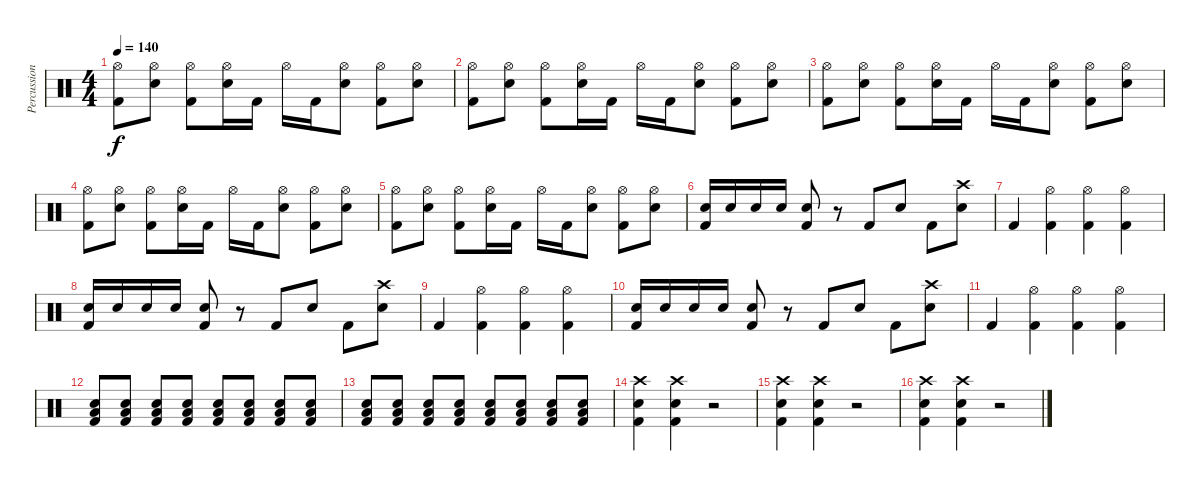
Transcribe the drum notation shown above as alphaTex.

\track ("Percussion" "Percussion") {instrument percussion}
\staff {score}
\articulation defaults
\ts (4 4)
\tempo 140
\clef neutral
\ks c
("Hi-Hat (open)" "Kick (hit) 2").8{dy f} ("Hi-Hat (open)" "Electric Snare (hit)").8 ("Hi-Hat (open)" "Kick (hit) 2").8 ("Hi-Hat (open)" "Electric Snare (hit)").16 "Kick (hit) 2".16 "Hi-Hat (open)".16 "Kick (hit) 2".16 ("Hi-Hat (open)" "Electric Snare (hit)").8 ("Hi-Hat (open)" "Kick (hit) 2").8 ("Hi-Hat (open)" "Electric Snare (hit)").8 |
("Hi-Hat (open)" "Kick (hit) 2").8 ("Hi-Hat (open)" "Electric Snare (hit)").8 ("Hi-Hat (open)" "Kick (hit) 2").8 ("Hi-Hat (open)" "Electric Snare (hit)").16 "Kick (hit) 2".16 "Hi-Hat (open)".16 "Kick (hit) 2".16 ("Hi-Hat (open)" "Electric Snare (hit)").8 ("Hi-Hat (open)" "Kick (hit) 2").8 ("Hi-Hat (open)" "Electric Snare (hit)").8 |
("Hi-Hat (open)" "Kick (hit) 2").8 ("Hi-Hat (open)" "Electric Snare (hit)").8 ("Hi-Hat (open)" "Kick (hit) 2").8 ("Hi-Hat (open)" "Electric Snare (hit)").16 "Kick (hit) 2".16 "Hi-Hat (open)".16 "Kick (hit) 2".16 ("Hi-Hat (open)" "Electric Snare (hit)").8 ("Hi-Hat (open)" "Kick (hit) 2").8 ("Hi-Hat (open)" "Electric Snare (hit)").8 |
("Hi-Hat (open)" "Kick (hit) 2").8 ("Hi-Hat (open)" "Electric Snare (hit)").8 ("Hi-Hat (open)" "Kick (hit) 2").8 ("Hi-Hat (open)" "Electric Snare (hit)").16 "Kick (hit) 2".16 "Hi-Hat (open)".16 "Kick (hit) 2".16 ("Hi-Hat (open)" "Electric Snare (hit)").8 ("Hi-Hat (open)" "Kick (hit) 2").8 ("Hi-Hat (open)" "Electric Snare (hit)").8 |
("Hi-Hat (open)" "Kick (hit) 2").8 ("Hi-Hat (open)" "Electric Snare (hit)").8 ("Hi-Hat (open)" "Kick (hit) 2").8 ("Hi-Hat (open)" "Electric Snare (hit)").16 "Kick (hit) 2".16 "Hi-Hat (open)".16 "Kick (hit) 2".16 ("Hi-Hat (open)" "Electric Snare (hit)").8 ("Hi-Hat (open)" "Kick (hit) 2").8 ("Hi-Hat (open)" "Electric Snare (hit)").8 |
("Electric Snare (hit)" "Kick (hit) 2").16 "Electric Snare (hit)".16 "Electric Snare (hit)".16 "Electric Snare (hit)".16 ("Electric Snare (hit)" "Kick (hit) 2").8 r.8 "Kick (hit) 2".8 "Electric Snare (hit)".8 "Kick (hit) 2".8 ("Crash high (hit)" "Electric Snare (hit)").8 |
"Kick (hit) 2".4 ("Hi-Hat (open)" "Kick (hit) 2").4 ("Hi-Hat (open)" "Kick (hit) 2").4 ("Hi-Hat (open)" "Kick (hit) 2").4 |
("Electric Snare (hit)" "Kick (hit) 2").16 "Electric Snare (hit)".16 "Electric Snare (hit)".16 "Electric Snare (hit)".16 ("Electric Snare (hit)" "Kick (hit) 2").8 r.8 "Kick (hit) 2".8 "Electric Snare (hit)".8 "Kick (hit) 2".8 ("Crash high (hit)" "Electric Snare (hit)").8 |
"Kick (hit) 2".4 ("Hi-Hat (open)" "Kick (hit) 2").4 ("Hi-Hat (open)" "Kick (hit) 2").4 ("Hi-Hat (open)" "Kick (hit) 2").4 |
("Electric Snare (hit)" "Kick (hit) 2").16 "Electric Snare (hit)".16 "Electric Snare (hit)".16 "Electric Snare (hit)".16 ("Electric Snare (hit)" "Kick (hit) 2").8 r.8 "Kick (hit) 2".8 "Electric Snare (hit)".8 "Kick (hit) 2".8 ("Crash high (hit)" "Electric Snare (hit)").8 |
"Kick (hit) 2".4 ("Hi-Hat (open)" "Kick (hit) 2").4 ("Hi-Hat (open)" "Kick (hit) 2").4 ("Hi-Hat (open)" "Kick (hit) 2").4 |
("Low Floor Tom (hit)" "Electric Snare (hit)" "Kick (hit) 2").8{volume 8} ("Low Floor Tom (hit)" "Electric Snare (hit)" "Kick (hit) 2").8{volume 13} ("Low Floor Tom (hit)" "Electric Snare (hit)" "Kick (hit) 2").8 ("Low Floor Tom (hit)" "Electric Snare (hit)" "Kick (hit) 2").8 ("Low Floor Tom (hit)" "Electric Snare (hit)" "Kick (hit) 2").8 ("Low Floor Tom (hit)" "Electric Snare (hit)" "Kick (hit) 2").8 ("Low Floor Tom (hit)" "Electric Snare (hit)" "Kick (hit) 2").8 ("Low Floor Tom (hit)" "Electric Snare (hit)" "Kick (hit) 2").8 |
("Low Floor Tom (hit)" "Electric Snare (hit)" "Kick (hit) 2").8 ("Low Floor Tom (hit)" "Electric Snare (hit)" "Kick (hit) 2").8 ("Low Floor Tom (hit)" "Electric Snare (hit)" "Kick (hit) 2").8 ("Low Floor Tom (hit)" "Electric Snare (hit)" "Kick (hit) 2").8 ("Low Floor Tom (hit)" "Electric Snare (hit)" "Kick (hit) 2").8 ("Low Floor Tom (hit)" "Electric Snare (hit)" "Kick (hit) 2").8 ("Low Floor Tom (hit)" "Electric Snare (hit)" "Kick (hit) 2").8 ("Low Floor Tom (hit)" "Electric Snare (hit)" "Kick (hit) 2").8 |
("Crash high (hit)" "Electric Snare (hit)" "Kick (hit) 2").4 ("Crash high (hit)" "Electric Snare (hit)" "Kick (hit) 2").4 r.2 |
("Crash high (hit)" "Electric Snare (hit)" "Kick (hit) 2").4 ("Crash high (hit)" "Electric Snare (hit)" "Kick (hit) 2").4 r.2 |
("Crash high (hit)" "Electric Snare (hit)" "Kick (hit) 2").4 ("Crash high (hit)" "Electric Snare (hit)" "Kick (hit) 2").4 r.2
